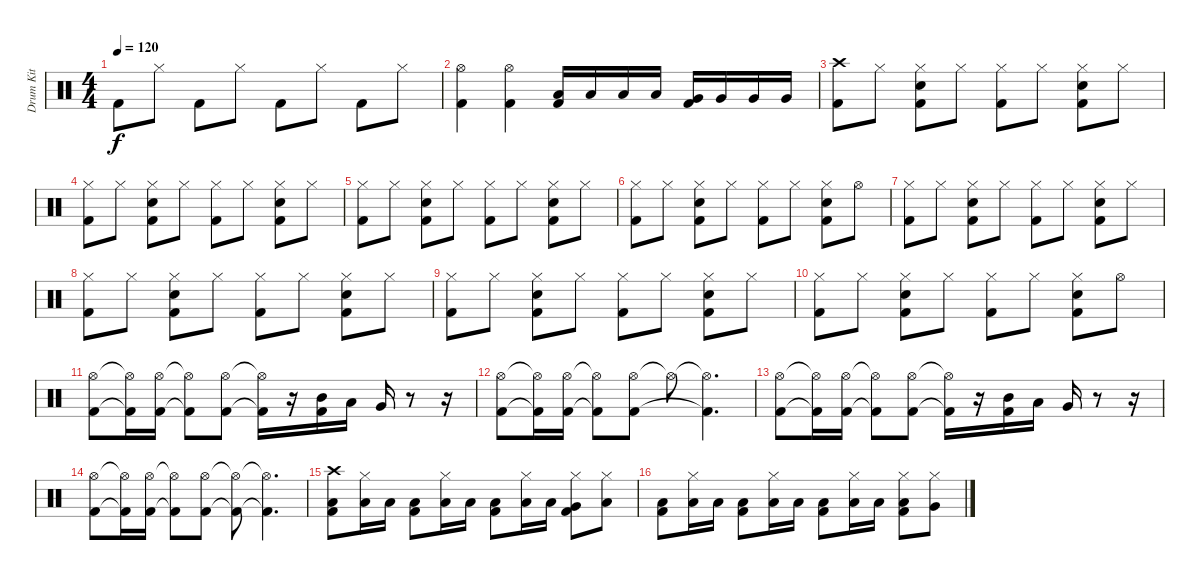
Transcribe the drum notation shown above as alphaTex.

\track ("Drum Kit" "Drum Kit") {instrument percussion}
\staff {score}
\articulation defaults
\ts (4 4)
\tempo 120
\clef neutral
\ks c "Kick (hit) 2".8{dy f} "Hi-Hat (closed)".8 "Kick (hit) 2".8 "Hi-Hat (closed)".8 "Kick (hit) 2".8 "Hi-Hat (closed)".8 "Kick (hit) 2".8 "Hi-Hat (closed)".8
|
("Hi-Hat (open)" "Kick (hit) 2").4 ("Hi-Hat (open)" "Kick (hit) 2").4 ("Low Tom (hit)" "Kick (hit) 2").16 "Low Tom (hit)".16 "Low Tom (hit)".16 "Low Tom (hit)".16 ("Very Low Tom (hit)" "Kick (hit) 2").16 "Very Low Tom (hit)".16 "Very Low Tom (hit)".16 "Very Low Tom (hit)".16 |
("Crash high (hit)" "Kick (hit) 2").8 "Hi-Hat (closed)".8 ("Hi-Hat (closed)" "Snare (hit) 2" "Kick (hit) 2").8 "Hi-Hat (closed)".8 ("Hi-Hat (closed)" "Kick (hit) 2").8 "Hi-Hat (closed)".8 ("Hi-Hat (closed)" "Snare (hit) 2" "Kick (hit) 2").8 "Hi-Hat (closed)".8 |
("Hi-Hat (closed)" "Kick (hit) 2").8 "Hi-Hat (closed)".8 ("Hi-Hat (closed)" "Snare (hit) 2" "Kick (hit) 2").8 "Hi-Hat (closed)".8 ("Hi-Hat (closed)" "Kick (hit) 2").8 "Hi-Hat (closed)".8 ("Hi-Hat (closed)" "Snare (hit) 2" "Kick (hit) 2").8 "Hi-Hat (closed)".8 |
("Hi-Hat (closed)" "Kick (hit) 2").8 "Hi-Hat (closed)".8 ("Hi-Hat (closed)" "Snare (hit) 2" "Kick (hit) 2").8 "Hi-Hat (closed)".8 ("Hi-Hat (closed)" "Kick (hit) 2").8 "Hi-Hat (closed)".8 ("Hi-Hat (closed)" "Snare (hit) 2" "Kick (hit) 2").8 "Hi-Hat (closed)".8 |
("Hi-Hat (closed)" "Kick (hit) 2").8 "Hi-Hat (closed)".8 ("Hi-Hat (closed)" "Snare (hit) 2" "Kick (hit) 2").8 "Hi-Hat (closed)".8 ("Hi-Hat (closed)" "Kick (hit) 2").8 "Hi-Hat (closed)".8 ("Hi-Hat (closed)" "Snare (hit) 2" "Kick (hit) 2").8 "Hi-Hat (open)".8 |
("Hi-Hat (closed)" "Kick (hit) 2").8 "Hi-Hat (closed)".8 ("Hi-Hat (closed)" "Snare (hit) 2" "Kick (hit) 2").8 "Hi-Hat (closed)".8 ("Hi-Hat (closed)" "Kick (hit) 2").8 "Hi-Hat (closed)".8 ("Hi-Hat (closed)" "Snare (hit) 2" "Kick (hit) 2").8 "Hi-Hat (closed)".8 |
("Hi-Hat (closed)" "Kick (hit) 2").8 "Hi-Hat (closed)".8 ("Hi-Hat (closed)" "Snare (hit) 2" "Kick (hit) 2").8 "Hi-Hat (closed)".8 ("Hi-Hat (closed)" "Kick (hit) 2").8 "Hi-Hat (closed)".8 ("Hi-Hat (closed)" "Snare (hit) 2" "Kick (hit) 2").8 "Hi-Hat (closed)".8 |
("Hi-Hat (closed)" "Kick (hit) 2").8 "Hi-Hat (closed)".8 ("Hi-Hat (closed)" "Snare (hit) 2" "Kick (hit) 2").8 "Hi-Hat (closed)".8 ("Hi-Hat (closed)" "Kick (hit) 2").8 "Hi-Hat (closed)".8 ("Hi-Hat (closed)" "Snare (hit) 2" "Kick (hit) 2").8 "Hi-Hat (closed)".8 |
("Hi-Hat (closed)" "Kick (hit) 2").8 "Hi-Hat (closed)".8 ("Hi-Hat (closed)" "Snare (hit) 2" "Kick (hit) 2").8 "Hi-Hat (closed)".8 ("Hi-Hat (closed)" "Kick (hit) 2").8 "Hi-Hat (closed)".8 ("Hi-Hat (closed)" "Snare (hit) 2" "Kick (hit) 2").8 "Hi-Hat (open)".8 |
("Hi-Hat (open)" "Kick (hit) 2").8 ("Hi-Hat (open)"{t} "Kick (hit) 2"{t}).16 ("Hi-Hat (open)" "Kick (hit) 2").16 ("Hi-Hat (open)"{t} "Kick (hit) 2"{t}).8 ("Hi-Hat (open)" "Kick (hit) 2").8 ("Hi-Hat (open)"{t} "Kick (hit) 2"{t}).16 r.16 ("Mid Tom (hit)" "Kick (hit) 2").16 "Low Tom (hit)".16 "Very Low Tom (hit)".16 r.8 r.16 |
("Hi-Hat (open)" "Kick (hit) 2").8 ("Hi-Hat (open)"{t} "Kick (hit) 2"{t}).16 ("Hi-Hat (open)" "Kick (hit) 2").16 ("Hi-Hat (open)"{t} "Kick (hit) 2"{t}).8 ("Hi-Hat (open)" "Kick (hit) 2").8 "Hi-Hat (open)"{t}.8 ("Hi-Hat (open)"{t} "Kick (hit) 2"{t}).4{d} |
("Hi-Hat (open)" "Kick (hit) 2").8 ("Hi-Hat (open)"{t} "Kick (hit) 2"{t}).16 ("Hi-Hat (open)" "Kick (hit) 2").16 ("Hi-Hat (open)"{t} "Kick (hit) 2"{t}).8 ("Hi-Hat (open)" "Kick (hit) 2").8 ("Hi-Hat (open)"{t} "Kick (hit) 2"{t}).16 r.16 ("Mid Tom (hit)" "Kick (hit) 2").16 "Low Tom (hit)".16 "Very Low Tom (hit)".16 r.8 r.16 |
("Hi-Hat (open)" "Kick (hit) 2").8 ("Hi-Hat (open)"{t} "Kick (hit) 2"{t}).16 ("Hi-Hat (open)" "Kick (hit) 2").16 ("Hi-Hat (open)"{t} "Kick (hit) 2"{t}).8 ("Hi-Hat (open)" "Kick (hit) 2").8 ("Hi-Hat (open)"{t} "Kick (hit) 2"{t}).8 ("Hi-Hat (open)"{t} "Kick (hit) 2"{t}).4{d} |
("Crash high (hit)" "Low Floor Tom (hit)" "Kick (hit) 2").8 ("Hi-Hat (closed)" "Low Floor Tom (hit)").16 "Low Floor Tom (hit)".16 ("Low Floor Tom (hit)" "Kick (hit) 2").8 ("Hi-Hat (closed)" "Low Floor Tom (hit)").16 "Low Floor Tom (hit)".16 ("Low Floor Tom (hit)" "Kick (hit) 2").8 ("Hi-Hat (closed)" "Low Floor Tom (hit)").16 "Low Floor Tom (hit)".16 ("Hi-Hat (closed)" "Very Low Tom (hit)" "Kick (hit) 2").8 ("Hi-Hat (closed)" "Low Tom (hit)").8 |
("Low Floor Tom (hit)" "Kick (hit) 2").8 ("Hi-Hat (closed)" "Low Floor Tom (hit)").16 "Low Floor Tom (hit)".16 ("Low Floor Tom (hit)" "Kick (hit) 2").8 ("Hi-Hat (closed)" "Low Floor Tom (hit)").16 "Low Floor Tom (hit)".16 ("Low Floor Tom (hit)" "Kick (hit) 2").8 ("Hi-Hat (closed)" "Low Floor Tom (hit)").16 "Low Floor Tom (hit)".16 ("Hi-Hat (closed)" "Low Tom (hit)" "Kick (hit) 2").8 ("Hi-Hat (closed)" "Very Low Tom (hit)").8
